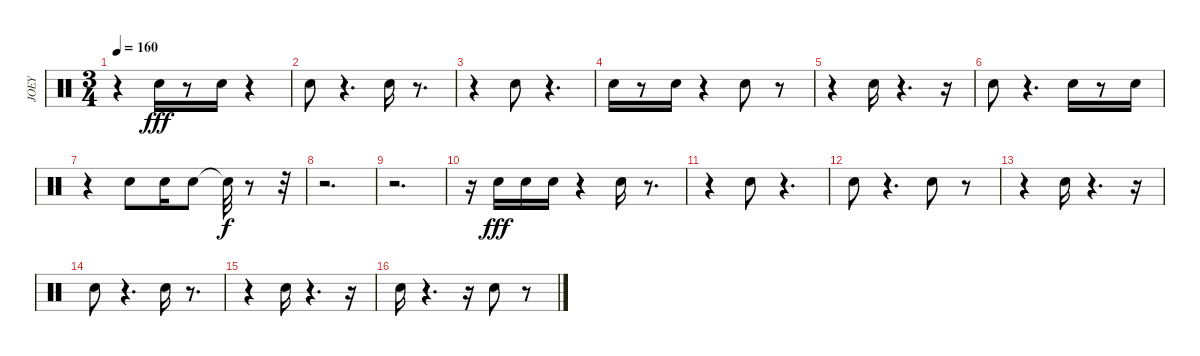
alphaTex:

\track ("JOEY" "JOEY") {instrument percussion}
\staff {score}
\articulation defaults
\ts (3 4)
\tempo 160
\clef neutral
\ks c
r.4{dy fff} "Snare (hit) 2".16 r.8 "Snare (hit) 2".16 r.4 |
"Snare (hit) 2".8 r.4{d} "Snare (hit) 2".16 r.8{d} |
r.4 "Snare (hit) 2".8 r.4{d} |
"Snare (hit) 2".16 r.8 "Snare (hit) 2".16 r.4 "Snare (hit) 2".8 r.8 |
r.4 "Snare (hit) 2".16 r.4{d} r.16 |
"Snare (hit) 2".8 r.4{d} "Snare (hit) 2".16 r.8 "Snare (hit) 2".16 |
r.4 "Snare (hit) 2".8 "Snare (hit) 2".16 "Snare (hit) 2".8 "Snare (hit)"{t}.32{dy f} r.8 r.32 |
r.2{d} |
r.2{d} |
r.16 "Snare (hit) 2".16{dy fff} "Snare (hit) 2".16 "Snare (hit) 2".16 r.4 "Snare (hit) 2".16 r.8{d} |
r.4 "Snare (hit) 2".8 r.4{d} |
"Snare (hit) 2".8 r.4{d} "Snare (hit) 2".8 r.8 |
r.4 "Snare (hit) 2".16 r.4{d} r.16 |
"Snare (hit) 2".8 r.4{d} "Snare (hit) 2".16 r.8{d} |
r.4 "Snare (hit) 2".16 r.4{d} r.16 |
"Snare (hit) 2".16 r.4{d} r.16 "Snare (hit) 2".8 r.8
